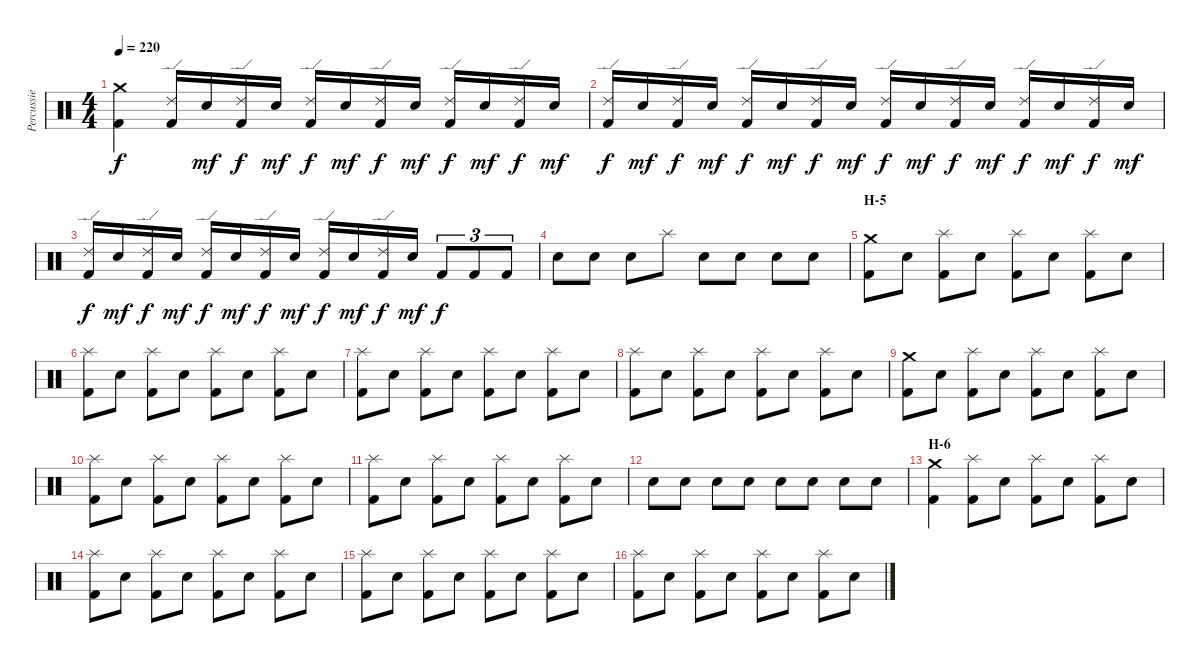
\track ("Percussie" "Percussie") {instrument percussion}
\staff {score}
\articulation defaults
\ts (4 4)
\tempo 220
\clef neutral
\ks c
("Crash medium (hit)" "Kick (hit) 2").4{dy f} ("Ride (edge) 2" "Kick (hit) 2").16 "Electric Snare (hit)".16{dy mf} ("Ride (edge) 2" "Kick (hit) 2").16{dy f} "Electric Snare (hit)".16{dy mf} ("Ride (edge) 2" "Kick (hit) 2").16{dy f} "Electric Snare (hit)".16{dy mf} ("Ride (edge) 2" "Kick (hit) 2").16{dy f} "Electric Snare (hit)".16{dy mf} ("Ride (edge) 2" "Kick (hit) 2").16{dy f} "Electric Snare (hit)".16{dy mf} ("Ride (edge) 2" "Kick (hit) 2").16{dy f} "Electric Snare (hit)".16{dy mf} |
("Ride (edge) 2" "Kick (hit) 2").16{dy f} "Electric Snare (hit)".16{dy mf} ("Ride (edge) 2" "Kick (hit) 2").16{dy f} "Electric Snare (hit)".16{dy mf} ("Ride (edge) 2" "Kick (hit) 2").16{dy f} "Electric Snare (hit)".16{dy mf} ("Ride (edge) 2" "Kick (hit) 2").16{dy f} "Electric Snare (hit)".16{dy mf} ("Ride (edge) 2" "Kick (hit) 2").16{dy f} "Electric Snare (hit)".16{dy mf} ("Ride (edge) 2" "Kick (hit) 2").16{dy f} "Electric Snare (hit)".16{dy mf} ("Ride (edge) 2" "Kick (hit) 2").16{dy f} "Electric Snare (hit)".16{dy mf} ("Ride (edge) 2" "Kick (hit) 2").16{dy f} "Electric Snare (hit)".16{dy mf} |
("Ride (edge) 2" "Kick (hit) 2").16{dy f} "Electric Snare (hit)".16{dy mf} ("Ride (edge) 2" "Kick (hit) 2").16{dy f} "Electric Snare (hit)".16{dy mf} ("Ride (edge) 2" "Kick (hit) 2").16{dy f} "Electric Snare (hit)".16{dy mf} ("Ride (edge) 2" "Kick (hit) 2").16{dy f} "Electric Snare (hit)".16{dy mf} ("Ride (edge) 2" "Kick (hit) 2").16{dy f} "Electric Snare (hit)".16{dy mf} ("Ride (edge) 2" "Kick (hit) 2").16{dy f} "Electric Snare (hit)".16{dy mf} "Kick (hit) 2".8{tu (3 2) dy f} "Kick (hit) 2".8{tu (3 2)} "Kick (hit) 2".8{tu (3 2)} |
"Electric Snare (hit)".8 "Electric Snare (hit)".8 "Electric Snare (hit)".8 "Splash (hit)".8 "Electric Snare (hit)".8 "Electric Snare (hit)".8 "Electric Snare (hit)".8 "Electric Snare (hit)".8 |
\section ("" "H-5")
("Crash medium (hit)" "Kick (hit) 2").8 "Electric Snare (hit)".8 ("Splash (hit)" "Kick (hit) 2").8 "Electric Snare (hit)".8 ("Splash (hit)" "Kick (hit) 2").8 "Electric Snare (hit)".8 ("Splash (hit)" "Kick (hit) 2").8 "Electric Snare (hit)".8 |
("Splash (hit)" "Kick (hit) 2").8 "Electric Snare (hit)".8 ("Splash (hit)" "Kick (hit) 2").8 "Electric Snare (hit)".8 ("Splash (hit)" "Kick (hit) 2").8 "Electric Snare (hit)".8 ("Splash (hit)" "Kick (hit) 2").8 "Electric Snare (hit)".8 |
("Splash (hit)" "Kick (hit) 2").8 "Electric Snare (hit)".8 ("Splash (hit)" "Kick (hit) 2").8 "Electric Snare (hit)".8 ("Splash (hit)" "Kick (hit) 2").8 "Electric Snare (hit)".8 ("Splash (hit)" "Kick (hit) 2").8 "Electric Snare (hit)".8 |
("Splash (hit)" "Kick (hit) 2").8 "Electric Snare (hit)".8 ("Splash (hit)" "Kick (hit) 2").8 "Electric Snare (hit)".8 ("Splash (hit)" "Kick (hit) 2").8 "Electric Snare (hit)".8 ("Splash (hit)" "Kick (hit) 2").8 "Electric Snare (hit)".8 |
("Crash medium (hit)" "Kick (hit) 2").8 "Electric Snare (hit)".8 ("Splash (hit)" "Kick (hit) 2").8 "Electric Snare (hit)".8 ("Splash (hit)" "Kick (hit) 2").8 "Electric Snare (hit)".8 ("Splash (hit)" "Kick (hit) 2").8 "Electric Snare (hit)".8 |
("Splash (hit)" "Kick (hit) 2").8 "Electric Snare (hit)".8 ("Splash (hit)" "Kick (hit) 2").8 "Electric Snare (hit)".8 ("Splash (hit)" "Kick (hit) 2").8 "Electric Snare (hit)".8 ("Splash (hit)" "Kick (hit) 2").8 "Electric Snare (hit)".8 |
("Splash (hit)" "Kick (hit) 2").8 "Electric Snare (hit)".8 ("Splash (hit)" "Kick (hit) 2").8 "Electric Snare (hit)".8 ("Splash (hit)" "Kick (hit) 2").8 "Electric Snare (hit)".8 ("Splash (hit)" "Kick (hit) 2").8 "Electric Snare (hit)".8 |
"Electric Snare (hit)".8 "Electric Snare (hit)".8 "Electric Snare (hit)".8 "Electric Snare (hit)".8 "Electric Snare (hit)".8 "Electric Snare (hit)".8 "Electric Snare (hit)".8 "Electric Snare (hit)".8 |
\section ("" "H-6")
("Crash medium (hit)" "Kick (hit) 2").4 ("Splash (hit)" "Kick (hit) 2").8 "Electric Snare (hit)".8 ("Splash (hit)" "Kick (hit) 2").8 "Electric Snare (hit)".8 ("Splash (hit)" "Kick (hit) 2").8 "Electric Snare (hit)".8 |
("Splash (hit)" "Kick (hit) 2").8 "Electric Snare (hit)".8 ("Splash (hit)" "Kick (hit) 2").8 "Electric Snare (hit)".8 ("Splash (hit)" "Kick (hit) 2").8 "Electric Snare (hit)".8 ("Splash (hit)" "Kick (hit) 2").8 "Electric Snare (hit)".8 |
("Splash (hit)" "Kick (hit) 2").8 "Electric Snare (hit)".8 ("Splash (hit)" "Kick (hit) 2").8 "Electric Snare (hit)".8 ("Splash (hit)" "Kick (hit) 2").8 "Electric Snare (hit)".8 ("Splash (hit)" "Kick (hit) 2").8 "Electric Snare (hit)".8 |
("Splash (hit)" "Kick (hit) 2").8 "Electric Snare (hit)".8 ("Splash (hit)" "Kick (hit) 2").8 "Electric Snare (hit)".8 ("Splash (hit)" "Kick (hit) 2").8 "Electric Snare (hit)".8 ("Splash (hit)" "Kick (hit) 2").8 "Electric Snare (hit)".8
